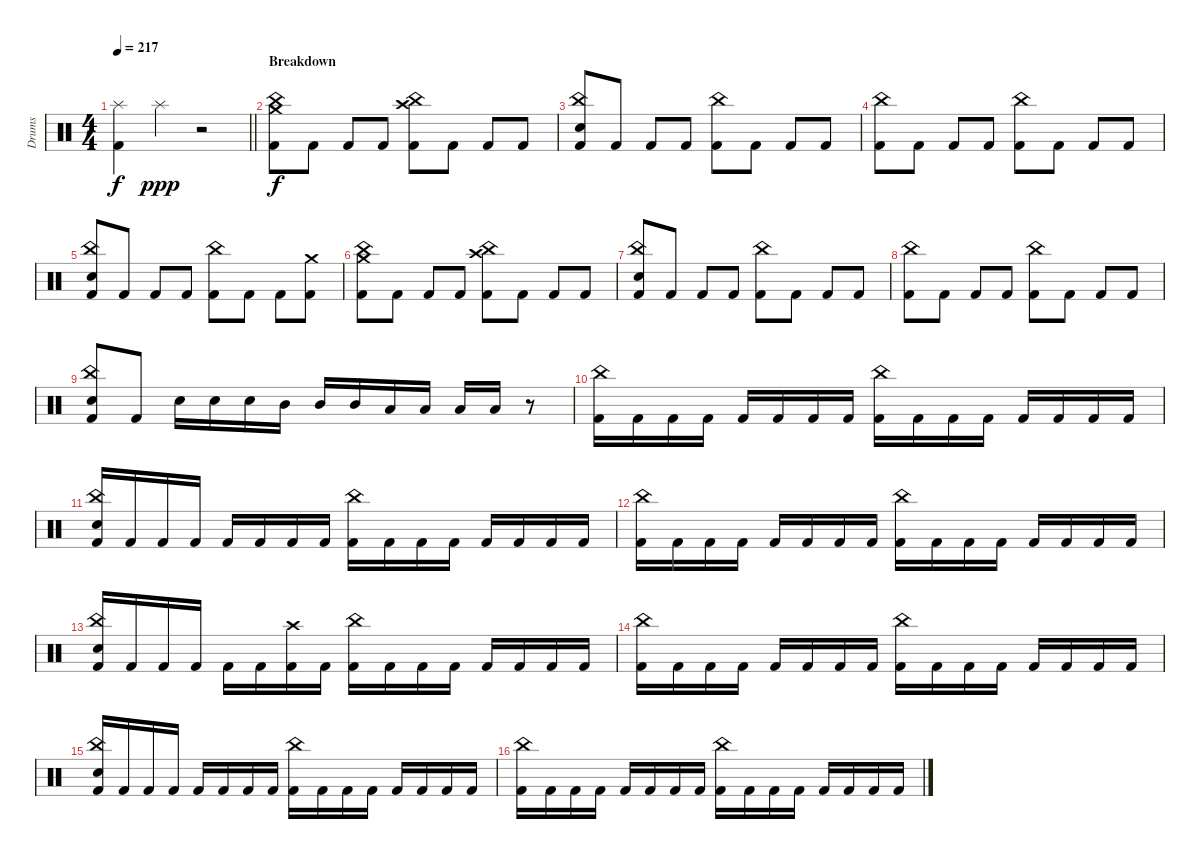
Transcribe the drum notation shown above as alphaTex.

\track ("Drums" "Drums") {instrument percussion}
\staff {score}
\articulation defaults
\ts (4 4)
\tempo 217
\clef neutral
\barLineRight lightlight
\ks c
("Splash (hit)" "Kick (hit) 2").4{dy f} "Splash (hit)".4{dy ppp} r.2 |
\section ("" "Breakdown")
("China (hit)" "Crash medium (hit)" "Kick (hit) 2").8{dy f} "Kick (hit) 2".8 "Kick (hit) 2".8 "Kick (hit) 2".8 ("China (hit)" "Crash high (hit)" "Kick (hit) 2").8 "Kick (hit) 2".8 "Kick (hit) 2".8 "Kick (hit) 2".8 |
("China (hit)" "Electric Snare (hit)" "Kick (hit) 2").8 "Kick (hit) 2".8 "Kick (hit) 2".8 "Kick (hit) 2".8 ("China (hit)" "Kick (hit) 2").8 "Kick (hit) 2".8 "Kick (hit) 2".8 "Kick (hit) 2".8 |
("China (hit)" "Kick (hit) 2").8 "Kick (hit) 2".8 "Kick (hit) 2".8 "Kick (hit) 2".8 ("China (hit)" "Kick (hit) 2").8 "Kick (hit) 2".8 "Kick (hit) 2".8 "Kick (hit) 2".8 |
("China (hit)" "Electric Snare (hit)" "Kick (hit) 2").8 "Kick (hit) 2".8 "Kick (hit) 2".8 "Kick (hit) 2".8 ("China (hit)" "Kick (hit) 2").8 "Kick (hit) 2".8 "Kick (hit) 2".8 ("Crash medium (hit)" "Kick (hit) 2").8 |
("China (hit)" "Crash medium (hit)" "Kick (hit) 2").8 "Kick (hit) 2".8 "Kick (hit) 2".8 "Kick (hit) 2".8 ("China (hit)" "Crash high (hit)" "Kick (hit) 2").8 "Kick (hit) 2".8 "Kick (hit) 2".8 "Kick (hit) 2".8 |
("China (hit)" "Electric Snare (hit)" "Kick (hit) 2").8 "Kick (hit) 2".8 "Kick (hit) 2".8 "Kick (hit) 2".8 ("China (hit)" "Kick (hit) 2").8 "Kick (hit) 2".8 "Kick (hit) 2".8 "Kick (hit) 2".8 |
("China (hit)" "Kick (hit) 2").8 "Kick (hit) 2".8 "Kick (hit) 2".8 "Kick (hit) 2".8 ("China (hit)" "Kick (hit) 2").8 "Kick (hit) 2".8 "Kick (hit) 2".8 "Kick (hit) 2".8 |
("China (hit)" "Electric Snare (hit)" "Kick (hit) 2").8 "Kick (hit) 2".8 "Electric Snare (hit)".16 "Electric Snare (hit)".16 "Electric Snare (hit)".16 "Mid Tom (hit)".16 "Mid Tom (hit)".16 "Mid Tom (hit)".16 "Low Tom (hit)".16 "Low Tom (hit)".16 "Low Tom (hit)".16 "Low Tom (hit)".16 r.8 |
("China (hit)" "Kick (hit) 2").16 "Kick (hit) 2".16 "Kick (hit) 2".16 "Kick (hit) 2".16 "Kick (hit) 2".16 "Kick (hit) 2".16 "Kick (hit) 2".16 "Kick (hit) 2".16 ("China (hit)" "Kick (hit) 2").16 "Kick (hit) 2".16 "Kick (hit) 2".16 "Kick (hit) 2".16 "Kick (hit) 2".16 "Kick (hit) 2".16 "Kick (hit) 2".16 "Kick (hit) 2".16 |
("China (hit)" "Electric Snare (hit)" "Kick (hit) 2").16 "Kick (hit) 2".16 "Kick (hit) 2".16 "Kick (hit) 2".16 "Kick (hit) 2".16 "Kick (hit) 2".16 "Kick (hit) 2".16 "Kick (hit) 2".16 ("China (hit)" "Kick (hit) 2").16 "Kick (hit) 2".16 "Kick (hit) 2".16 "Kick (hit) 2".16 "Kick (hit) 2".16 "Kick (hit) 2".16 "Kick (hit) 2".16 "Kick (hit) 2".16 |
("China (hit)" "Kick (hit) 2").16 "Kick (hit) 2".16 "Kick (hit) 2".16 "Kick (hit) 2".16 "Kick (hit) 2".16 "Kick (hit) 2".16 "Kick (hit) 2".16 "Kick (hit) 2".16 ("China (hit)" "Kick (hit) 2").16 "Kick (hit) 2".16 "Kick (hit) 2".16 "Kick (hit) 2".16 "Kick (hit) 2".16 "Kick (hit) 2".16 "Kick (hit) 2".16 "Kick (hit) 2".16 |
("China (hit)" "Electric Snare (hit)" "Kick (hit) 2").16 "Kick (hit) 2".16 "Kick (hit) 2".16 "Kick (hit) 2".16 "Kick (hit) 2".16 "Kick (hit) 2".16 ("Crash high (hit)" "Kick (hit) 2").16 "Kick (hit) 2".16 ("China (hit)" "Kick (hit) 2").16 "Kick (hit) 2".16 "Kick (hit) 2".16 "Kick (hit) 2".16 "Kick (hit) 2".16 "Kick (hit) 2".16 "Kick (hit) 2".16 "Kick (hit) 2".16 |
("China (hit)" "Kick (hit) 2").16 "Kick (hit) 2".16 "Kick (hit) 2".16 "Kick (hit) 2".16 "Kick (hit) 2".16 "Kick (hit) 2".16 "Kick (hit) 2".16 "Kick (hit) 2".16 ("China (hit)" "Kick (hit) 2").16 "Kick (hit) 2".16 "Kick (hit) 2".16 "Kick (hit) 2".16 "Kick (hit) 2".16 "Kick (hit) 2".16 "Kick (hit) 2".16 "Kick (hit) 2".16 |
("China (hit)" "Electric Snare (hit)" "Kick (hit) 2").16 "Kick (hit) 2".16 "Kick (hit) 2".16 "Kick (hit) 2".16 "Kick (hit) 2".16 "Kick (hit) 2".16 "Kick (hit) 2".16 "Kick (hit) 2".16 ("China (hit)" "Kick (hit) 2").16 "Kick (hit) 2".16 "Kick (hit) 2".16 "Kick (hit) 2".16 "Kick (hit) 2".16 "Kick (hit) 2".16 "Kick (hit) 2".16 "Kick (hit) 2".16 |
("China (hit)" "Kick (hit) 2").16 "Kick (hit) 2".16 "Kick (hit) 2".16 "Kick (hit) 2".16 "Kick (hit) 2".16 "Kick (hit) 2".16 "Kick (hit) 2".16 "Kick (hit) 2".16 ("China (hit)" "Kick (hit) 2").16 "Kick (hit) 2".16 "Kick (hit) 2".16 "Kick (hit) 2".16 "Kick (hit) 2".16 "Kick (hit) 2".16 "Kick (hit) 2".16 "Kick (hit) 2".16
